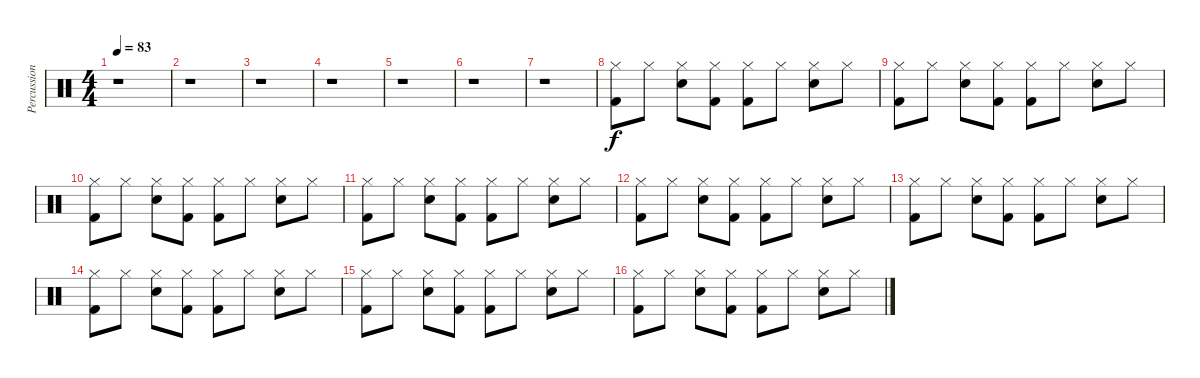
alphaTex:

\track ("Percussion" "Percussion") {instrument percussion}
\staff {score}
\articulation defaults
\ts (4 4)
\tempo 83
\clef neutral
\ks c
r.1{dy f} |
r.1 |
r.1 |
r.1 |
r.1 |
r.1 |
r.1 |
("Hi-Hat (closed)" "Kick (hit) 2").8 "Hi-Hat (closed)".8 ("Snare (hit) 2" "Hi-Hat (closed)").8 ("Hi-Hat (closed)" "Kick (hit) 2").8 ("Hi-Hat (closed)" "Kick (hit) 2").8 "Hi-Hat (closed)".8 ("Snare (hit) 2" "Hi-Hat (closed)").8 "Hi-Hat (closed)".8 |
("Hi-Hat (closed)" "Kick (hit) 2").8 "Hi-Hat (closed)".8 ("Snare (hit) 2" "Hi-Hat (closed)").8 ("Hi-Hat (closed)" "Kick (hit) 2").8 ("Hi-Hat (closed)" "Kick (hit) 2").8 "Hi-Hat (closed)".8 ("Snare (hit) 2" "Hi-Hat (closed)").8 "Hi-Hat (closed)".8 |
("Hi-Hat (closed)" "Kick (hit) 2").8 "Hi-Hat (closed)".8 ("Snare (hit) 2" "Hi-Hat (closed)").8 ("Hi-Hat (closed)" "Kick (hit) 2").8 ("Hi-Hat (closed)" "Kick (hit) 2").8 "Hi-Hat (closed)".8 ("Snare (hit) 2" "Hi-Hat (closed)").8 "Hi-Hat (closed)".8 |
("Hi-Hat (closed)" "Kick (hit) 2").8 "Hi-Hat (closed)".8 ("Snare (hit) 2" "Hi-Hat (closed)").8 ("Hi-Hat (closed)" "Kick (hit) 2").8 ("Hi-Hat (closed)" "Kick (hit) 2").8 "Hi-Hat (closed)".8 ("Snare (hit) 2" "Hi-Hat (closed)").8 "Hi-Hat (closed)".8 |
("Kick (hit) 2" "Hi-Hat (closed)").8 "Hi-Hat (closed)".8 ("Hi-Hat (closed)" "Snare (hit) 2").8 ("Hi-Hat (closed)" "Kick (hit) 2").8 ("Kick (hit) 2" "Hi-Hat (closed)").8 "Hi-Hat (closed)".8 ("Hi-Hat (closed)" "Snare (hit) 2").8 "Hi-Hat (closed)".8 |
("Kick (hit) 2" "Hi-Hat (closed)").8 "Hi-Hat (closed)".8 ("Hi-Hat (closed)" "Snare (hit) 2").8 ("Hi-Hat (closed)" "Kick (hit) 2").8 ("Kick (hit) 2" "Hi-Hat (closed)").8 "Hi-Hat (closed)".8 ("Hi-Hat (closed)" "Snare (hit) 2").8 "Hi-Hat (closed)".8 |
("Kick (hit) 2" "Hi-Hat (closed)").8 "Hi-Hat (closed)".8 ("Hi-Hat (closed)" "Snare (hit) 2").8 ("Hi-Hat (closed)" "Kick (hit) 2").8 ("Kick (hit) 2" "Hi-Hat (closed)").8 "Hi-Hat (closed)".8 ("Hi-Hat (closed)" "Snare (hit) 2").8 "Hi-Hat (closed)".8 |
("Kick (hit) 2" "Hi-Hat (closed)").8 "Hi-Hat (closed)".8 ("Hi-Hat (closed)" "Snare (hit) 2").8 ("Hi-Hat (closed)" "Kick (hit) 2").8 ("Kick (hit) 2" "Hi-Hat (closed)").8 "Hi-Hat (closed)".8 ("Hi-Hat (closed)" "Snare (hit) 2").8 "Hi-Hat (closed)".8 |
("Kick (hit) 2" "Hi-Hat (closed)").8 "Hi-Hat (closed)".8 ("Hi-Hat (closed)" "Snare (hit) 2").8 ("Hi-Hat (closed)" "Kick (hit) 2").8 ("Kick (hit) 2" "Hi-Hat (closed)").8 "Hi-Hat (closed)".8 ("Hi-Hat (closed)" "Snare (hit) 2").8 "Hi-Hat (closed)".8
